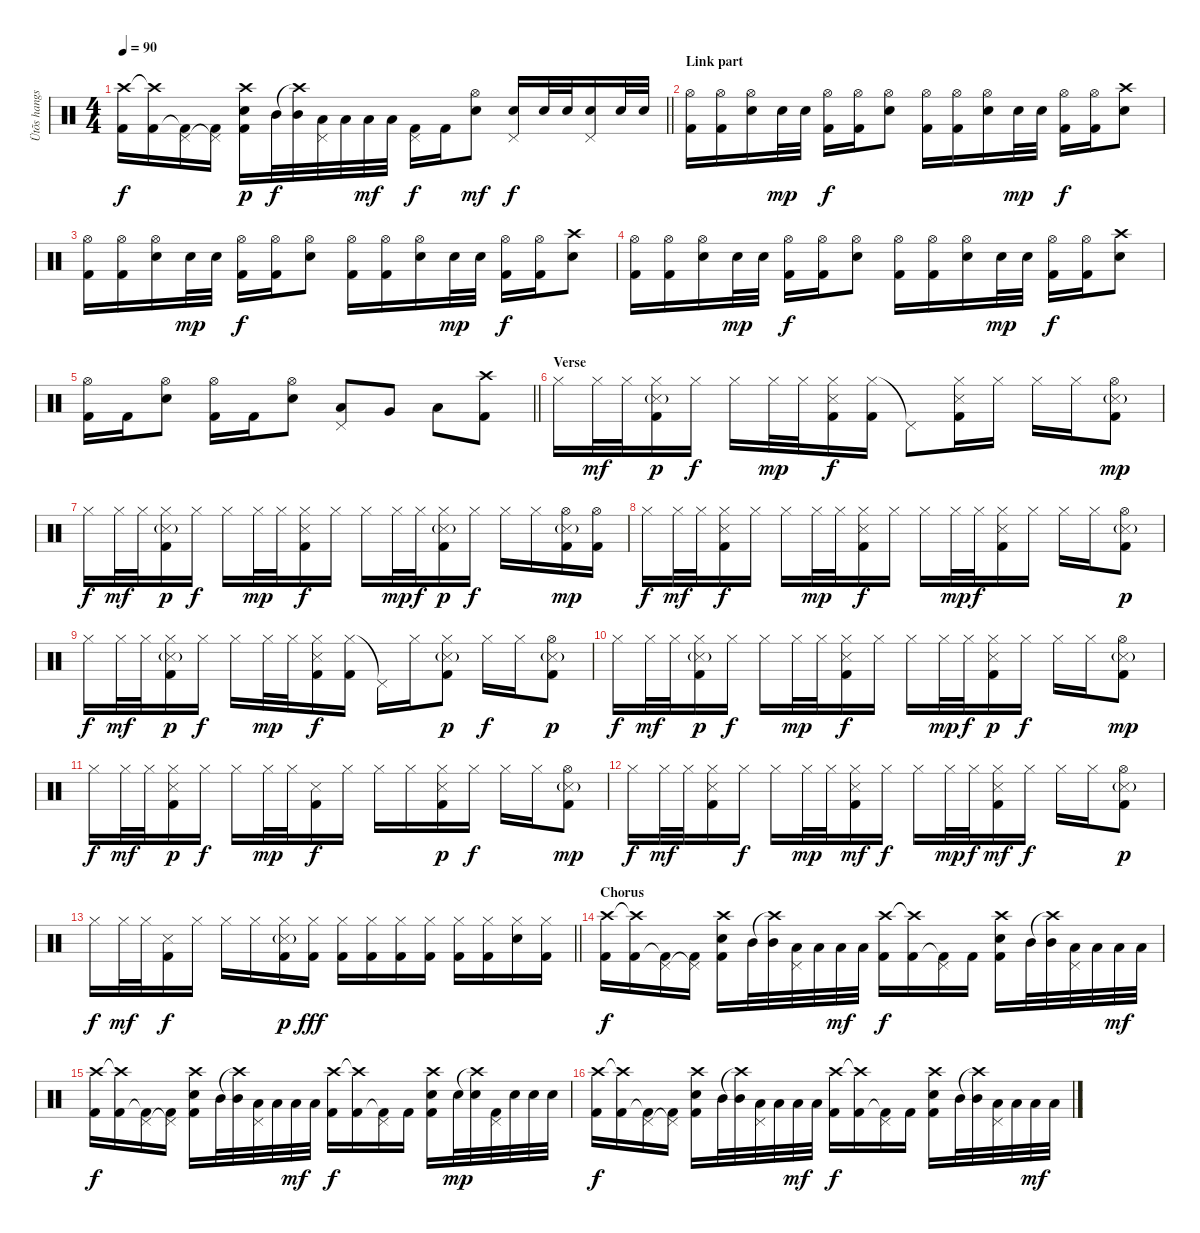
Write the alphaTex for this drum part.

\track ("Ütõs hangszer" "Ütõs hangs") {instrument percussion}
\staff {score}
\articulation defaults
\ts (4 4)
\tempo 90
\clef neutral
\barLineRight lightlight
\ks c
("Crash high (hit)" "Kick (hit) 2").16{dy f} ("Crash high (hit)"{t} "Kick (hit) 2").16 ("Pedal Hi-Hat (hit)" "Kick (hit) 2"{t}).16 ("Pedal Hi-Hat (hit)"{t} "Kick (hit) 2").16 ("Crash high (hit)" "Snare (hit) 2" "Kick (hit) 2").16{dy p} "Mid Tom (hit)".32{dy f} ("Crash high (hit)"{t} "Mid Tom (hit)").32 ("Pedal Hi-Hat (hit)" "Low Tom (hit)").32 "Low Tom (hit)".32 "Low Tom (hit)".32{dy mf} "Low Tom (hit)".32 ("Pedal Hi-Hat (hit)" "Kick (hit) 2").16{dy f} "Kick (hit) 2".16 ("Hi-Hat (open)" "Snare (hit) 2").8{dy mf} ("Pedal Hi-Hat (hit)" "Snare (hit) 2").16{dy f} "Snare (hit) 2".32 "Snare (hit) 2".32 ("Pedal Hi-Hat (hit)" "Snare (hit) 2").16 "Snare (hit) 2".32 "Snare (hit) 2".32 |
\section ("" "Link part")
("Hi-Hat (open)" "Kick (hit) 2").16 ("Hi-Hat (open)" "Kick (hit) 2").16 ("Hi-Hat (open)" "Snare (hit) 2").16 "Snare (hit) 2".32{dy mp} "Snare (hit) 2".32 ("Hi-Hat (open)" "Kick (hit) 2").16{dy f} ("Hi-Hat (open)" "Kick (hit) 2").16 ("Hi-Hat (open)" "Snare (hit) 2").8 ("Hi-Hat (open)" "Kick (hit) 2").16 ("Hi-Hat (open)" "Kick (hit) 2").16 ("Hi-Hat (open)" "Snare (hit) 2").16 "Snare (hit) 2".32{dy mp} "Snare (hit) 2".32 ("Hi-Hat (open)" "Kick (hit) 2").16{dy f} ("Hi-Hat (open)" "Kick (hit) 2").16 ("Crash high (hit)" "Snare (hit) 2").8 |
("Hi-Hat (open)" "Kick (hit) 2").16 ("Hi-Hat (open)" "Kick (hit) 2").16 ("Hi-Hat (open)" "Snare (hit) 2").16 "Snare (hit) 2".32{dy mp} "Snare (hit) 2".32 ("Hi-Hat (open)" "Kick (hit) 2").16{dy f} ("Hi-Hat (open)" "Kick (hit) 2").16 ("Hi-Hat (open)" "Snare (hit) 2").8 ("Hi-Hat (open)" "Kick (hit) 2").16 ("Hi-Hat (open)" "Kick (hit) 2").16 ("Hi-Hat (open)" "Snare (hit) 2").16 "Snare (hit) 2".32{dy mp} "Snare (hit) 2".32 ("Hi-Hat (open)" "Kick (hit) 2").16{dy f} ("Hi-Hat (open)" "Kick (hit) 2").16 ("Crash high (hit)" "Snare (hit) 2").8 |
("Hi-Hat (open)" "Kick (hit) 2").16 ("Hi-Hat (open)" "Kick (hit) 2").16 ("Hi-Hat (open)" "Snare (hit) 2").16 "Snare (hit) 2".32{dy mp} "Snare (hit) 2".32 ("Hi-Hat (open)" "Kick (hit) 2").16{dy f} ("Hi-Hat (open)" "Kick (hit) 2").16 ("Hi-Hat (open)" "Snare (hit) 2").8 ("Hi-Hat (open)" "Kick (hit) 2").16 ("Hi-Hat (open)" "Kick (hit) 2").16 ("Hi-Hat (open)" "Snare (hit) 2").16 "Snare (hit) 2".32{dy mp} "Snare (hit) 2".32 ("Hi-Hat (open)" "Kick (hit) 2").16{dy f} ("Hi-Hat (open)" "Kick (hit) 2").16 ("Crash high (hit)" "Snare (hit) 2").8 |
\barLineRight lightlight
("Hi-Hat (open)" "Kick (hit) 2").16 "Kick (hit) 2".16 ("Hi-Hat (open)" "Snare (hit) 2").8 ("Hi-Hat (open)" "Kick (hit) 2").16 "Kick (hit) 2".16 ("Hi-Hat (open)" "Snare (hit) 2").8 ("Pedal Hi-Hat (hit)" "Low Tom (hit)").8 "Very Low Tom (hit)".8 "Low Floor Tom (hit)".8 ("Crash high (hit)" "Kick (hit) 2").8 |
\section ("" "Verse")
"Hi-Hat (closed)".16 "Hi-Hat (closed)".32{dy mf} "Hi-Hat (closed)".32 ("Hi-Hat (closed)" "Snare (side stick) 3"{g} "Kick (hit) 2").16{dy p} "Hi-Hat (closed)".16{dy f} "Hi-Hat (closed)".16 "Hi-Hat (closed)".32{dy mp} "Hi-Hat (closed)".32 ("Hi-Hat (closed)" "Snare (side stick) 3" "Kick (hit) 2").16{dy f} ("Hi-Hat (closed)" "Kick (hit) 2").16 "Pedal Hi-Hat (hit)"{t}.8 ("Hi-Hat (closed)" "Snare (side stick) 3" "Kick (hit) 2").16 "Hi-Hat (closed)".16 "Hi-Hat (closed)".16 "Hi-Hat (closed)".16 ("Hi-Hat (open)" "Snare (side stick) 3"{g} "Kick (hit) 2").8{dy mp} |
"Hi-Hat (closed)".16{dy f} "Hi-Hat (closed)".32{dy mf} "Hi-Hat (closed)".32 ("Hi-Hat (closed)" "Snare (side stick) 3"{g} "Kick (hit) 2").16{dy p} "Hi-Hat (closed)".16{dy f} "Hi-Hat (closed)".16 "Hi-Hat (closed)".32{dy mp} "Hi-Hat (closed)".32 ("Hi-Hat (closed)" "Snare (side stick) 3" "Kick (hit) 2").16{dy f} "Hi-Hat (closed)".16 "Hi-Hat (closed)".16 "Hi-Hat (closed)".32{dy mp} "Hi-Hat (closed)".32{dy f} ("Hi-Hat (closed)" "Snare (side stick) 3"{g} "Kick (hit) 2").16{dy p} "Hi-Hat (closed)".16{dy f} "Hi-Hat (closed)".16 "Hi-Hat (closed)".16 ("Hi-Hat (open)" "Snare (side stick) 3"{g} "Kick (hit) 2").16{dy mp} ("Hi-Hat (open)" "Kick (hit) 2").16 |
"Hi-Hat (closed)".16{dy f} "Hi-Hat (closed)".32{dy mf} "Hi-Hat (closed)".32 ("Hi-Hat (closed)" "Snare (side stick) 3" "Kick (hit) 2").16{dy f} "Hi-Hat (closed)".16 "Hi-Hat (closed)".16 "Hi-Hat (closed)".32{dy mp} "Hi-Hat (closed)".32 ("Hi-Hat (closed)" "Snare (side stick) 3" "Kick (hit) 2").16{dy f} "Hi-Hat (closed)".16 "Hi-Hat (closed)".16 "Hi-Hat (closed)".32{dy mp} "Hi-Hat (closed)".32{dy f} ("Hi-Hat (closed)" "Snare (side stick) 3" "Kick (hit) 2").16 "Hi-Hat (closed)".16 "Hi-Hat (closed)".16 "Hi-Hat (closed)".16 ("Hi-Hat (open)" "Snare (side stick) 3"{g} "Kick (hit) 2").8{dy p} |
"Hi-Hat (closed)".16{dy f} "Hi-Hat (closed)".32{dy mf} "Hi-Hat (closed)".32 ("Hi-Hat (closed)" "Snare (side stick) 3"{g} "Kick (hit) 2").16{dy p} "Hi-Hat (closed)".16{dy f} "Hi-Hat (closed)".16 "Hi-Hat (closed)".32{dy mp} "Hi-Hat (closed)".32 ("Hi-Hat (closed)" "Snare (side stick) 3" "Kick (hit) 2").16{dy f} ("Hi-Hat (closed)" "Kick (hit) 2").16 "Pedal Hi-Hat (hit)"{t}.16 "Hi-Hat (closed)".16 ("Hi-Hat (closed)" "Snare (side stick) 3"{g} "Kick (hit) 2").8{dy p} "Hi-Hat (closed)".16{dy f} "Hi-Hat (closed)".16 ("Hi-Hat (open)" "Snare (side stick) 3"{g} "Kick (hit) 2").8{dy p} |
"Hi-Hat (closed)".16{dy f} "Hi-Hat (closed)".32{dy mf} "Hi-Hat (closed)".32 ("Hi-Hat (closed)" "Snare (side stick) 3"{g} "Kick (hit) 2").16{dy p} "Hi-Hat (closed)".16{dy f} "Hi-Hat (closed)".16 "Hi-Hat (closed)".32{dy mp} "Hi-Hat (closed)".32 ("Hi-Hat (closed)" "Snare (side stick) 3" "Kick (hit) 2").16{dy f} "Hi-Hat (closed)".16 "Hi-Hat (closed)".16 "Hi-Hat (closed)".32{dy mp} "Hi-Hat (closed)".32{dy f} ("Hi-Hat (closed)" "Snare (side stick) 3" "Kick (hit) 2").16{dy p} "Hi-Hat (closed)".16{dy f} "Hi-Hat (closed)".16 "Hi-Hat (closed)".16 ("Hi-Hat (open)" "Snare (side stick) 3"{g} "Kick (hit) 2").8{dy mp} |
"Hi-Hat (closed)".16{dy f} "Hi-Hat (closed)".32{dy mf} "Hi-Hat (closed)".32 ("Hi-Hat (closed)" "Snare (side stick) 3" "Kick (hit) 2").16{dy p} "Hi-Hat (closed)".16{dy f} "Hi-Hat (closed)".16 "Hi-Hat (closed)".32{dy mp} "Hi-Hat (closed)".32 ("Snare (side stick) 3" "Kick (hit) 2").16{dy f} "Hi-Hat (closed)".16 "Hi-Hat (closed)".16 "Hi-Hat (closed)".16 ("Hi-Hat (closed)" "Snare (side stick) 3" "Kick (hit) 2").16{dy p} "Hi-Hat (closed)".16{dy f} "Hi-Hat (closed)".16 "Hi-Hat (closed)".16 ("Hi-Hat (open)" "Snare (side stick) 3"{g} "Kick (hit) 2").8{dy mp} |
"Hi-Hat (closed)".16{dy f} "Hi-Hat (closed)".32{dy mf} "Hi-Hat (closed)".32 ("Hi-Hat (closed)" "Snare (side stick) 3" "Kick (hit) 2").16 "Hi-Hat (closed)".16{dy f} "Hi-Hat (closed)".16 "Hi-Hat (closed)".32{dy mp} "Hi-Hat (closed)".32 ("Hi-Hat (closed)" "Snare (side stick) 3" "Kick (hit) 2").16{dy mf} "Hi-Hat (closed)".16{dy f} "Hi-Hat (closed)".16 "Hi-Hat (closed)".32{dy mp} "Hi-Hat (closed)".32{dy f} ("Hi-Hat (closed)" "Snare (side stick) 3" "Kick (hit) 2").16{dy mf} "Hi-Hat (closed)".16{dy f} "Hi-Hat (closed)".16 "Hi-Hat (closed)".16 ("Hi-Hat (open)" "Snare (side stick) 3"{g} "Kick (hit) 2").8{dy p} |
\barLineRight lightlight "Hi-Hat (closed)".16{dy f} "Hi-Hat (closed)".32{dy mf} "Hi-Hat (closed)".32
("Snare (side stick) 3" "Kick (hit) 2").16{dy f} "Hi-Hat (closed)".16 "Hi-Hat (closed)".16 "Hi-Hat (closed)".16 ("Hi-Hat (closed)" "Snare (side stick) 3"{g} "Kick (hit) 2").16{dy p} ("Hi-Hat (closed)" "Kick (hit) 2").16{dy fff} ("Hi-Hat (closed)" "Kick (hit) 2").16 ("Hi-Hat (closed)" "Kick (hit) 2").16 ("Hi-Hat (closed)" "Kick (hit) 2").16 ("Hi-Hat (closed)" "Kick (hit) 2").16 ("Hi-Hat (closed)" "Kick (hit) 2").16 ("Hi-Hat (closed)" "Kick (hit) 2").16 ("Hi-Hat (closed)" "Snare (hit) 2").16 ("Hi-Hat (closed)" "Kick (hit) 2").16 |
\section ("" "Chorus")
("Crash high (hit)" "Kick (hit) 2").16{dy f} ("Crash high (hit)"{t} "Kick (hit) 2").16 ("Pedal Hi-Hat (hit)" "Kick (hit) 2"{t}).16 ("Pedal Hi-Hat (hit)"{t} "Kick (hit) 2").16 ("Crash high (hit)" "Snare (hit) 2" "Kick (hit) 2").16 "Mid Tom (hit)".32 ("Crash high (hit)"{t} "Mid Tom (hit)").32 ("Pedal Hi-Hat (hit)" "Low Tom (hit)").32 "Low Tom (hit)".32 "Low Tom (hit)".32{dy mf} "Low Tom (hit)".32 ("Crash high (hit)" "Kick (hit) 2").16{dy f} ("Crash high (hit)"{t} "Kick (hit) 2").16 ("Pedal Hi-Hat (hit)" "Kick (hit) 2"{t}).16 "Kick (hit) 2".16 ("Crash high (hit)" "Snare (hit) 2" "Kick (hit) 2").16 "Mid Tom (hit)".32 ("Crash high (hit)"{t} "Mid Tom (hit)").32 ("Pedal Hi-Hat (hit)" "Low Tom (hit)").32 "Low Tom (hit)".32 "Low Tom (hit)".32{dy mf} "Low Tom (hit)".32 |
("Crash high (hit)" "Kick (hit) 2").16{dy f} ("Crash high (hit)"{t} "Kick (hit) 2").16 ("Pedal Hi-Hat (hit)" "Kick (hit) 2"{t}).16 ("Pedal Hi-Hat (hit)"{t} "Kick (hit) 2").16 ("Crash high (hit)" "Snare (hit) 2" "Kick (hit) 2").16 "Mid Tom (hit)".32 ("Crash high (hit)"{t} "Mid Tom (hit)").32 ("Pedal Hi-Hat (hit)" "Low Tom (hit)").32 "Low Tom (hit)".32 "Low Tom (hit)".32{dy mf} "Low Tom (hit)".32 ("Crash high (hit)" "Kick (hit) 2").16{dy f} ("Crash high (hit)"{t} "Kick (hit) 2").16 ("Pedal Hi-Hat (hit)" "Kick (hit) 2"{t}).16 "Kick (hit) 2".16 ("Crash high (hit)" "Snare (hit) 2" "Kick (hit) 2").16 "Snare (hit) 2".32{dy mp} ("Crash high (hit)"{t} "Snare (hit) 2").32 ("Pedal Hi-Hat (hit)" "Kick (hit) 2").32 "Snare (hit) 2".32 "Snare (hit) 2".32 "Snare (hit) 2".32 |
("Crash high (hit)" "Kick (hit) 2").16{dy f} ("Crash high (hit)"{t} "Kick (hit) 2").16 ("Pedal Hi-Hat (hit)" "Kick (hit) 2"{t}).16 ("Pedal Hi-Hat (hit)"{t} "Kick (hit) 2").16 ("Crash high (hit)" "Snare (hit) 2" "Kick (hit) 2").16 "Mid Tom (hit)".32 ("Crash high (hit)"{t} "Mid Tom (hit)").32 ("Pedal Hi-Hat (hit)" "Low Tom (hit)").32 "Low Tom (hit)".32 "Low Tom (hit)".32{dy mf} "Low Tom (hit)".32 ("Crash high (hit)" "Kick (hit) 2").16{dy f} ("Crash high (hit)"{t} "Kick (hit) 2").16 ("Pedal Hi-Hat (hit)" "Kick (hit) 2"{t}).16 "Kick (hit) 2".16 ("Crash high (hit)" "Snare (hit) 2" "Kick (hit) 2").16 "Mid Tom (hit)".32 ("Crash high (hit)"{t} "Mid Tom (hit)").32 ("Pedal Hi-Hat (hit)" "Low Tom (hit)").32 "Low Tom (hit)".32 "Low Tom (hit)".32{dy mf} "Low Tom (hit)".32
